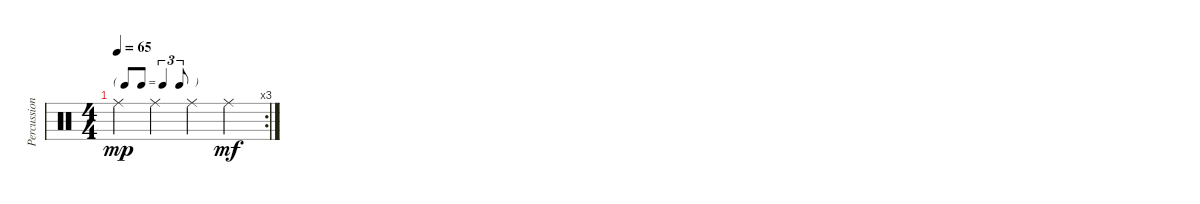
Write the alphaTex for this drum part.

\track ("Percussion" "Percussion") {instrument percussion}
\staff {score}
\articulation defaults
\rc 3
\ts (4 4)
\tf triplet8th
\tempo 65
\clef neutral
\ks c "Ride (middle)".4{dy mp} "Ride (middle)".4 "Ride (middle)".4 "Ride (middle)".4{dy mf}
